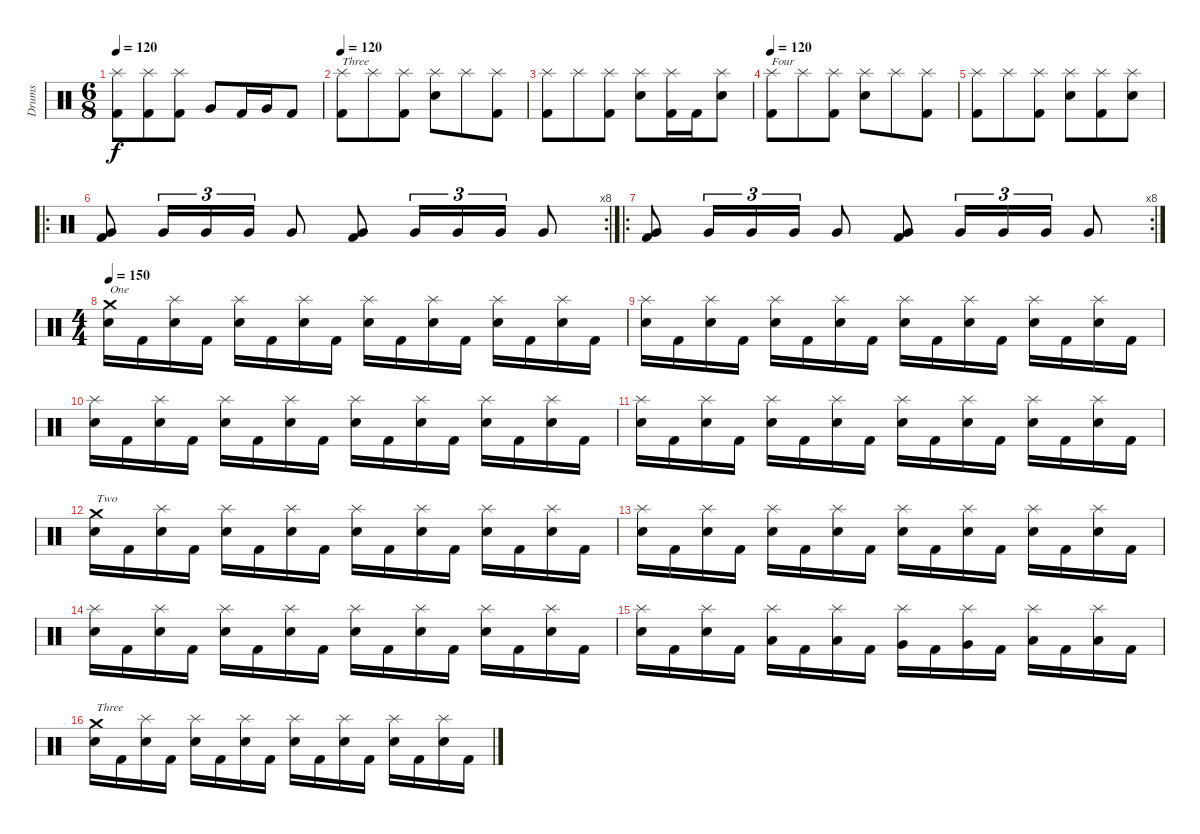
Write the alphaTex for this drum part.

\track ("Drums" "Drums") {instrument percussion}
\staff {score}
\articulation defaults
\ts (6 8)
\tempo 120
\clef neutral
\ks c
("Splash (hit)" "Kick (hit) 2").8{dy f} ("Splash (hit)" "Kick (hit) 2").8 ("Splash (hit)" "Kick (hit) 2").8 "Very Low Tom (hit)".8 "Kick (hit) 2".16 "Very Low Tom (hit)".16 "Kick (hit) 2".8 |
\tempo 120
("Splash (hit)" "Kick (hit) 2").8{txt "Three"} "Splash (hit)".8 ("Splash (hit)" "Kick (hit) 2").8 ("Splash (hit)" "Snare (hit) 2").8 "Splash (hit)".8 ("Splash (hit)" "Kick (hit) 2").8 |
("Splash (hit)" "Kick (hit) 2").8 "Splash (hit)".8 ("Splash (hit)" "Kick (hit) 2").8 ("Splash (hit)" "Snare (hit) 2").8 ("Splash (hit)" "Kick (hit) 2").16 "Kick (hit) 2".16 ("Splash (hit)" "Snare (hit) 2").8 |
\tempo 120
("Splash (hit)" "Kick (hit) 2").8{txt "Four"} "Splash (hit)".8 ("Splash (hit)" "Kick (hit) 2").8 ("Splash (hit)" "Snare (hit) 2").8 "Splash (hit)".8 ("Splash (hit)" "Kick (hit) 2").8 |
("Splash (hit)" "Kick (hit) 2").8 "Splash (hit)".8 ("Splash (hit)" "Kick (hit) 2").8 ("Splash (hit)" "Snare (hit) 2").8 ("Splash (hit)" "Kick (hit) 2").8 ("Splash (hit)" "Snare (hit) 2").8 |
\ro
\rc 8
("Very Low Tom (hit)" "Kick (hit) 2").8 "Very Low Tom (hit)".16{tu (3 2)} "Very Low Tom (hit)".16{tu (3 2)} "Very Low Tom (hit)".16{tu (3 2)} "Very Low Tom (hit)".8 ("Very Low Tom (hit)" "Kick (hit) 2").8 "Very Low Tom (hit)".16{tu (3 2)} "Very Low Tom (hit)".16{tu (3 2)} "Very Low Tom (hit)".16{tu (3 2)} "Very Low Tom (hit)".8 |
\ro
\rc 8
("Very Low Tom (hit)" "Kick (hit) 2").8 "Very Low Tom (hit)".16{tu (3 2)} "Very Low Tom (hit)".16{tu (3 2)} "Very Low Tom (hit)".16{tu (3 2)} "Very Low Tom (hit)".8 ("Very Low Tom (hit)" "Kick (hit) 2").8 "Very Low Tom (hit)".16{tu (3 2)} "Very Low Tom (hit)".16{tu (3 2)} "Very Low Tom (hit)".16{tu (3 2)} "Very Low Tom (hit)".8 |
\ts (4 4)
\tempo 150
("Crash medium (hit)" "Snare (hit) 2").16{txt "One"} "Kick (hit) 2".16 ("Splash (hit)" "Snare (hit) 2").16 "Kick (hit) 2".16 ("Splash (hit)" "Snare (hit) 2").16 "Kick (hit) 2".16 ("Splash (hit)" "Snare (hit) 2").16 "Kick (hit) 2".16 ("Splash (hit)" "Snare (hit) 2").16 "Kick (hit) 2".16 ("Splash (hit)" "Snare (hit) 2").16 "Kick (hit) 2".16 ("Splash (hit)" "Snare (hit) 2").16 "Kick (hit) 2".16 ("Splash (hit)" "Snare (hit) 2").16 "Kick (hit) 2".16 |
("Splash (hit)" "Snare (hit) 2").16 "Kick (hit) 2".16 ("Splash (hit)" "Snare (hit) 2").16 "Kick (hit) 2".16 ("Splash (hit)" "Snare (hit) 2").16 "Kick (hit) 2".16 ("Splash (hit)" "Snare (hit) 2").16 "Kick (hit) 2".16 ("Splash (hit)" "Snare (hit) 2").16 "Kick (hit) 2".16 ("Splash (hit)" "Snare (hit) 2").16 "Kick (hit) 2".16 ("Splash (hit)" "Snare (hit) 2").16 "Kick (hit) 2".16 ("Splash (hit)" "Snare (hit) 2").16 "Kick (hit) 2".16 |
("Splash (hit)" "Snare (hit) 2").16 "Kick (hit) 2".16 ("Splash (hit)" "Snare (hit) 2").16 "Kick (hit) 2".16 ("Splash (hit)" "Snare (hit) 2").16 "Kick (hit) 2".16 ("Splash (hit)" "Snare (hit) 2").16 "Kick (hit) 2".16 ("Splash (hit)" "Snare (hit) 2").16 "Kick (hit) 2".16 ("Splash (hit)" "Snare (hit) 2").16 "Kick (hit) 2".16 ("Splash (hit)" "Snare (hit) 2").16 "Kick (hit) 2".16 ("Splash (hit)" "Snare (hit) 2").16 "Kick (hit) 2".16 |
("Splash (hit)" "Snare (hit) 2").16 "Kick (hit) 2".16 ("Splash (hit)" "Snare (hit) 2").16 "Kick (hit) 2".16 ("Splash (hit)" "Snare (hit) 2").16 "Kick (hit) 2".16 ("Splash (hit)" "Snare (hit) 2").16 "Kick (hit) 2".16 ("Splash (hit)" "Snare (hit) 2").16 "Kick (hit) 2".16 ("Splash (hit)" "Snare (hit) 2").16 "Kick (hit) 2".16 ("Splash (hit)" "Snare (hit) 2").16 "Kick (hit) 2".16 ("Splash (hit)" "Snare (hit) 2").16 "Kick (hit) 2".16 |
("Crash medium (hit)" "Snare (hit) 2").16{txt "Two"} "Kick (hit) 2".16 ("Splash (hit)" "Snare (hit) 2").16 "Kick (hit) 2".16 ("Splash (hit)" "Snare (hit) 2").16 "Kick (hit) 2".16 ("Splash (hit)" "Snare (hit) 2").16 "Kick (hit) 2".16 ("Splash (hit)" "Snare (hit) 2").16 "Kick (hit) 2".16 ("Splash (hit)" "Snare (hit) 2").16 "Kick (hit) 2".16 ("Splash (hit)" "Snare (hit) 2").16 "Kick (hit) 2".16 ("Splash (hit)" "Snare (hit) 2").16 "Kick (hit) 2".16 |
("Splash (hit)" "Snare (hit) 2").16 "Kick (hit) 2".16 ("Splash (hit)" "Snare (hit) 2").16 "Kick (hit) 2".16 ("Splash (hit)" "Snare (hit) 2").16 "Kick (hit) 2".16 ("Splash (hit)" "Snare (hit) 2").16 "Kick (hit) 2".16 ("Splash (hit)" "Snare (hit) 2").16 "Kick (hit) 2".16 ("Splash (hit)" "Snare (hit) 2").16 "Kick (hit) 2".16 ("Splash (hit)" "Snare (hit) 2").16 "Kick (hit) 2".16 ("Splash (hit)" "Snare (hit) 2").16 "Kick (hit) 2".16 |
("Splash (hit)" "Snare (hit) 2").16 "Kick (hit) 2".16 ("Splash (hit)" "Snare (hit) 2").16 "Kick (hit) 2".16 ("Splash (hit)" "Snare (hit) 2").16 "Kick (hit) 2".16 ("Splash (hit)" "Snare (hit) 2").16 "Kick (hit) 2".16 ("Splash (hit)" "Snare (hit) 2").16 "Kick (hit) 2".16 ("Splash (hit)" "Snare (hit) 2").16 "Kick (hit) 2".16 ("Splash (hit)" "Snare (hit) 2").16 "Kick (hit) 2".16 ("Splash (hit)" "Snare (hit) 2").16 "Kick (hit) 2".16 |
("Splash (hit)" "Snare (hit) 2").16 "Kick (hit) 2".16 ("Splash (hit)" "Snare (hit) 2").16 "Kick (hit) 2".16 ("Splash (hit)" "Low Tom (hit)").16 "Kick (hit) 2".16 ("Splash (hit)" "Low Tom (hit)").16 "Kick (hit) 2".16 ("Splash (hit)" "Very Low Tom (hit)").16 "Kick (hit) 2".16 ("Splash (hit)" "Very Low Tom (hit)").16 "Kick (hit) 2".16 ("Splash (hit)" "Low Floor Tom (hit)").16 "Kick (hit) 2".16 ("Splash (hit)" "Low Floor Tom (hit)").16 "Kick (hit) 2".16 |
("Crash medium (hit)" "Snare (hit) 2").16{txt "Three"} "Kick (hit) 2".16 ("Splash (hit)" "Snare (hit) 2").16 "Kick (hit) 2".16 ("Splash (hit)" "Snare (hit) 2").16 "Kick (hit) 2".16 ("Splash (hit)" "Snare (hit) 2").16 "Kick (hit) 2".16 ("Splash (hit)" "Snare (hit) 2").16 "Kick (hit) 2".16 ("Splash (hit)" "Snare (hit) 2").16 "Kick (hit) 2".16 ("Splash (hit)" "Snare (hit) 2").16 "Kick (hit) 2".16 ("Splash (hit)" "Snare (hit) 2").16 "Kick (hit) 2".16
